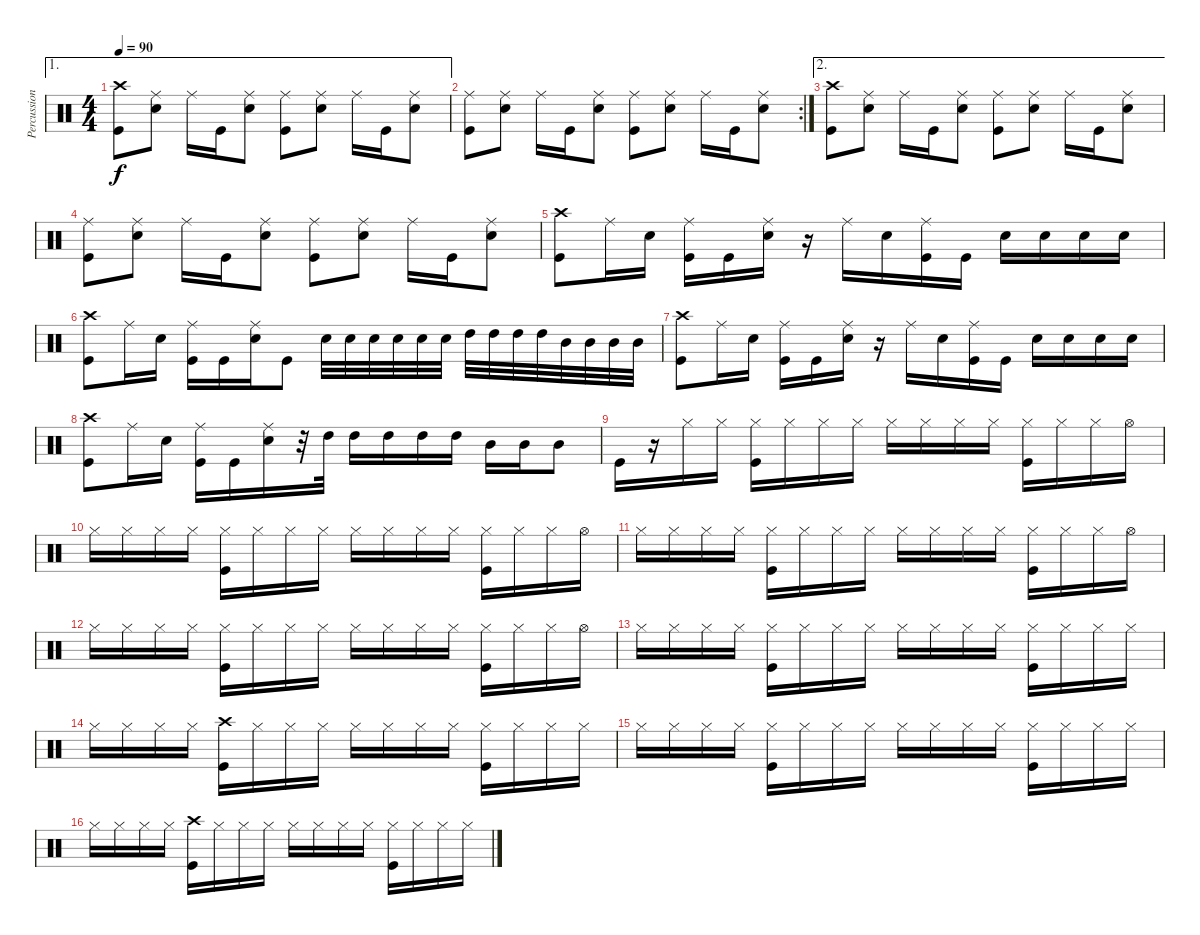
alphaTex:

\track ("Percussion" "Percussion") {instrument percussion}
\staff {score}
\articulation defaults
\ae 1
\ts (4 4)
\tempo 90
\clef neutral
\ks c
("Crash high (hit)" "Kick (hit)").8{dy f} ("Ride (middle)" "Electric Snare (hit)").8 "Ride (middle)".16 "Kick (hit)".16 ("Ride (middle)" "Electric Snare (hit)").8 ("Ride (middle)" "Kick (hit)").8 ("Ride (middle)" "Electric Snare (hit)").8 "Ride (middle)".16 "Kick (hit)".16 ("Ride (middle)" "Electric Snare (hit)").8 |
\rc 2
("Ride (middle)" "Kick (hit)").8 ("Ride (middle)" "Electric Snare (hit)").8 "Ride (middle)".16 "Kick (hit)".16 ("Ride (middle)" "Electric Snare (hit)").8 ("Ride (middle)" "Kick (hit)").8 ("Ride (middle)" "Electric Snare (hit)").8 "Ride (middle)".16 "Kick (hit)".16 ("Ride (middle)" "Electric Snare (hit)").8 |
\ae 2
("Crash high (hit)" "Kick (hit)").8 ("Ride (middle)" "Electric Snare (hit)").8 "Ride (middle)".16 "Kick (hit)".16 ("Ride (middle)" "Electric Snare (hit)").8 ("Ride (middle)" "Kick (hit)").8 ("Ride (middle)" "Electric Snare (hit)").8 "Ride (middle)".16 "Kick (hit)".16 ("Ride (middle)" "Electric Snare (hit)").8 |
("Ride (middle)" "Kick (hit)").8 ("Ride (middle)" "Electric Snare (hit)").8 "Ride (middle)".16 "Kick (hit)".16 ("Ride (middle)" "Electric Snare (hit)").8 ("Ride (middle)" "Kick (hit)").8 ("Ride (middle)" "Electric Snare (hit)").8 "Ride (middle)".16 "Kick (hit)".16 ("Ride (middle)" "Electric Snare (hit)").8 |
("Crash high (hit)" "Kick (hit)").8 "Ride (middle)".16 "Electric Snare (hit)".16 ("Ride (middle)" "Kick (hit)").16 "Kick (hit)".16 ("Ride (middle)" "Electric Snare (hit)").16 r.16 "Ride (middle)".16 "Electric Snare (hit)".16 ("Ride (middle)" "Kick (hit)").16 "Kick (hit)".16 "Electric Snare (hit)".16 "Electric Snare (hit)".16 "Electric Snare (hit)".16 "Electric Snare (hit)".16 |
("Crash high (hit)" "Kick (hit)").8 "Ride (middle)".16 "Electric Snare (hit)".16 ("Ride (middle)" "Kick (hit)").16 "Kick (hit)".16 ("Ride (middle)" "Electric Snare (hit)").16 "Kick (hit)".8 "Electric Snare (hit)".32 "Electric Snare (hit)".32 "Electric Snare (hit)".32 "Electric Snare (hit)".32 "Electric Snare (hit)".32 "Electric Snare (hit)".32 "High Tom (hit)".32 "High Tom (hit)".32 "High Tom (hit)".32 "High Tom (hit)".32 "Mid Tom (hit)".32 "Mid Tom (hit)".32 "Mid Tom (hit)".32 "Mid Tom (hit)".32 |
("Crash high (hit)" "Kick (hit)").8 "Ride (middle)".16 "Electric Snare (hit)".16 ("Ride (middle)" "Kick (hit)").16 "Kick (hit)".16 ("Ride (middle)" "Electric Snare (hit)").16 r.16 "Ride (middle)".16 "Electric Snare (hit)".16 ("Ride (middle)" "Kick (hit)").16 "Kick (hit)".16 "Electric Snare (hit)".16 "Electric Snare (hit)".16 "Electric Snare (hit)".16 "Electric Snare (hit)".16 |
("Crash high (hit)" "Kick (hit)").8 "Ride (middle)".16 "Electric Snare (hit)".16 ("Ride (middle)" "Kick (hit)").16 "Kick (hit)".16 ("Ride (middle)" "Electric Snare (hit)").16 r.32 "High Tom (hit)".32 "High Tom (hit)".16 "High Tom (hit)".16 "High Tom (hit)".16 "High Tom (hit)".16 "Mid Tom (hit)".16 "Mid Tom (hit)".16 "Mid Tom (hit)".8 |
"Kick (hit)".16 r.16 "Hi-Hat (closed)".16 "Hi-Hat (closed)".16 ("Hi-Hat (closed)" "Kick (hit)").16 "Hi-Hat (closed)".16 "Hi-Hat (closed)".16 "Hi-Hat (closed)".16 "Hi-Hat (closed)".16 "Hi-Hat (closed)".16 "Hi-Hat (closed)".16 "Hi-Hat (closed)".16 ("Hi-Hat (closed)" "Kick (hit)").16 "Hi-Hat (closed)".16 "Hi-Hat (closed)".16 "Hi-Hat (open)".16 |
"Hi-Hat (closed)".16 "Hi-Hat (closed)".16 "Hi-Hat (closed)".16 "Hi-Hat (closed)".16 ("Hi-Hat (closed)" "Kick (hit)").16 "Hi-Hat (closed)".16 "Hi-Hat (closed)".16 "Hi-Hat (closed)".16 "Hi-Hat (closed)".16 "Hi-Hat (closed)".16 "Hi-Hat (closed)".16 "Hi-Hat (closed)".16 ("Hi-Hat (closed)" "Kick (hit)").16 "Hi-Hat (closed)".16 "Hi-Hat (closed)".16 "Hi-Hat (open)".16 |
"Hi-Hat (closed)".16 "Hi-Hat (closed)".16 "Hi-Hat (closed)".16 "Hi-Hat (closed)".16 ("Hi-Hat (closed)" "Kick (hit)").16 "Hi-Hat (closed)".16 "Hi-Hat (closed)".16 "Hi-Hat (closed)".16 "Hi-Hat (closed)".16 "Hi-Hat (closed)".16 "Hi-Hat (closed)".16 "Hi-Hat (closed)".16 ("Hi-Hat (closed)" "Kick (hit)").16 "Hi-Hat (closed)".16 "Hi-Hat (closed)".16 "Hi-Hat (open)".16 |
"Hi-Hat (closed)".16 "Hi-Hat (closed)".16 "Hi-Hat (closed)".16 "Hi-Hat (closed)".16 ("Hi-Hat (closed)" "Kick (hit)").16 "Hi-Hat (closed)".16 "Hi-Hat (closed)".16 "Hi-Hat (closed)".16 "Hi-Hat (closed)".16 "Hi-Hat (closed)".16 "Hi-Hat (closed)".16 "Hi-Hat (closed)".16 ("Hi-Hat (closed)" "Kick (hit)").16 "Hi-Hat (closed)".16 "Hi-Hat (closed)".16 "Hi-Hat (open)".16 |
"Hi-Hat (closed)".16 "Hi-Hat (closed)".16 "Hi-Hat (closed)".16 "Hi-Hat (closed)".16 ("Hi-Hat (closed)" "Kick (hit)").16 "Hi-Hat (closed)".16 "Hi-Hat (closed)".16 "Hi-Hat (closed)".16 "Hi-Hat (closed)".16 "Hi-Hat (closed)".16 "Hi-Hat (closed)".16 "Hi-Hat (closed)".16 ("Hi-Hat (closed)" "Kick (hit)").16 "Hi-Hat (closed)".16 "Hi-Hat (closed)".16 "Hi-Hat (closed)".16 |
"Hi-Hat (closed)".16 "Hi-Hat (closed)".16 "Hi-Hat (closed)".16 "Hi-Hat (closed)".16 ("Crash high (hit)" "Kick (hit)").16 "Hi-Hat (closed)".16 "Hi-Hat (closed)".16 "Hi-Hat (closed)".16 "Hi-Hat (closed)".16 "Hi-Hat (closed)".16 "Hi-Hat (closed)".16 "Hi-Hat (closed)".16 ("Hi-Hat (closed)" "Kick (hit)").16 "Hi-Hat (closed)".16 "Hi-Hat (closed)".16 "Hi-Hat (closed)".16 |
"Hi-Hat (closed)".16 "Hi-Hat (closed)".16 "Hi-Hat (closed)".16 "Hi-Hat (closed)".16 ("Hi-Hat (closed)" "Kick (hit)").16 "Hi-Hat (closed)".16 "Hi-Hat (closed)".16 "Hi-Hat (closed)".16 "Hi-Hat (closed)".16 "Hi-Hat (closed)".16 "Hi-Hat (closed)".16 "Hi-Hat (closed)".16 ("Hi-Hat (closed)" "Kick (hit)").16 "Hi-Hat (closed)".16 "Hi-Hat (closed)".16 "Hi-Hat (closed)".16 |
"Hi-Hat (closed)".16 "Hi-Hat (closed)".16 "Hi-Hat (closed)".16 "Hi-Hat (closed)".16 ("Crash high (hit)" "Kick (hit)").16 "Hi-Hat (closed)".16 "Hi-Hat (closed)".16 "Hi-Hat (closed)".16 "Hi-Hat (closed)".16 "Hi-Hat (closed)".16 "Hi-Hat (closed)".16 "Hi-Hat (closed)".16 ("Hi-Hat (closed)" "Kick (hit)").16 "Hi-Hat (closed)".16 "Hi-Hat (closed)".16 "Hi-Hat (closed)".16
